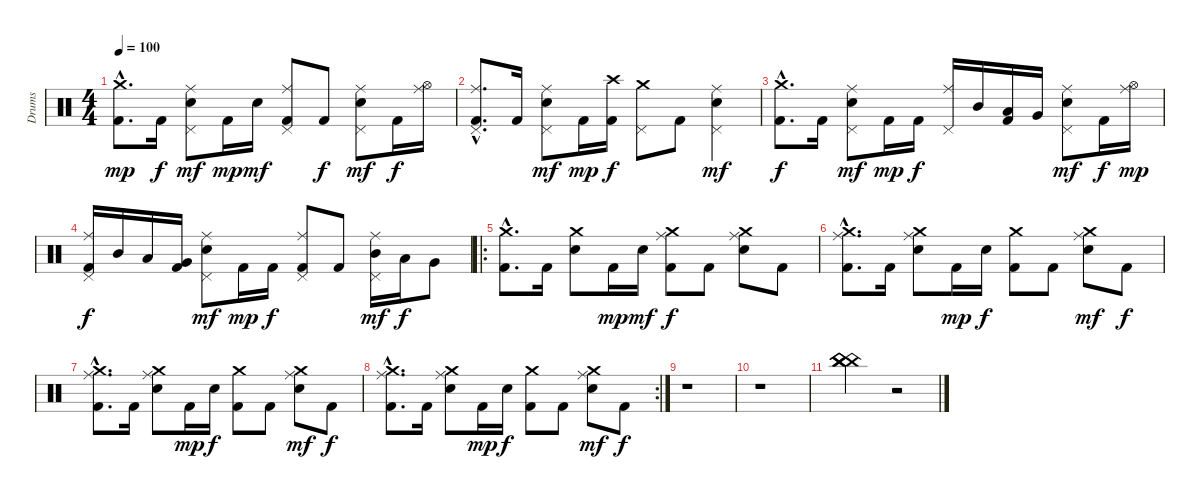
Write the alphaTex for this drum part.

\track ("Drums" "Drums") {instrument percussion}
\staff {score}
\articulation defaults
\ts (4 4)
\tempo 100
\clef neutral
\ks c
("Crash medium (hit)"{hac} "Kick (hit) 2"{hac}).8{d dy mp} "Kick (hit) 2".16{dy f} ("Ride (middle)" "Pedal Hi-Hat (hit)" "Electric Snare (hit)").8{dy mf} "Kick (hit) 2".16{dy mp} "Electric Snare (hit)".16{dy mf} ("Ride (middle)" "Pedal Hi-Hat (hit)" "Kick (hit) 2").8 "Kick (hit) 2".8{dy f} ("Ride (middle)" "Pedal Hi-Hat (hit)" "Electric Snare (hit)").8{dy mf} "Kick (hit) 2".16{dy f} ("Ride (middle)" "Hi-Hat (open)").16 |
("Ride (middle)"{hac} "Pedal Hi-Hat (hit)"{hac} "Kick (hit) 2"{hac}).8{d} "Kick (hit) 2".16 ("Ride (middle)" "Pedal Hi-Hat (hit)" "Electric Snare (hit)").8{dy mf} "Kick (hit) 2".16{dy mp} ("Crash high (hit)" "Kick (hit) 2").16{dy f} ("Crash medium (hit)" "Pedal Hi-Hat (hit)").8 "Kick (hit) 2".8 ("Ride (middle)" "Pedal Hi-Hat (hit)" "Electric Snare (hit)").4{dy mf} |
("Crash medium (hit)"{hac} "Kick (hit) 2"{hac}).8{d dy f} "Kick (hit) 2".16 ("Ride (middle)" "Pedal Hi-Hat (hit)" "Electric Snare (hit)").8{dy mf} "Kick (hit) 2".16{dy mp} "Kick (hit) 2".16{dy f} ("Ride (middle)" "Pedal Hi-Hat (hit)").16 "Mid Tom (hit)".16 ("Low Tom (hit)" "Kick (hit) 2").16 "Very Low Tom (hit)".16 ("Ride (middle)" "Pedal Hi-Hat (hit)" "Electric Snare (hit)").8{dy mf} "Kick (hit) 2".16{dy f} ("Ride (middle)" "Hi-Hat (open)").16{dy mp} |
("Ride (middle)" "Pedal Hi-Hat (hit)" "Kick (hit) 2").16{dy f} "Mid Tom (hit)".16 "Low Tom (hit)".16 ("Very Low Tom (hit)" "Kick (hit) 2").16 ("Ride (middle)" "Pedal Hi-Hat (hit)" "Electric Snare (hit)").8{dy mf} "Kick (hit) 2".16{dy mp} "Kick (hit) 2".16{dy f} ("Ride (middle)" "Pedal Hi-Hat (hit)" "Kick (hit) 2").8 "Kick (hit) 2".8 ("Ride (middle)" "Pedal Hi-Hat (hit)" "Mid Tom (hit)").16{dy mf} "Low Tom (hit)".16{dy f} "Very Low Tom (hit)".8 |
\ro
("Crash medium (hit)"{hac} "Kick (hit) 2"{hac}).8{d} "Kick (hit) 2".16 ("Crash medium (hit)" "Electric Snare (hit)").8 "Kick (hit) 2".16{dy mp} "Electric Snare (hit)".16{dy mf} ("Ride (middle)" "Crash medium (hit)" "Kick (hit) 2").8{dy f} "Kick (hit) 2".8 ("Ride (middle)" "Crash medium (hit)" "Electric Snare (hit)").8 "Kick (hit) 2".8 |
("Ride (middle)"{hac} "Crash medium (hit)"{hac} "Kick (hit) 2"{hac}).8{d} "Kick (hit) 2".16 ("Ride (middle)" "Crash medium (hit)" "Electric Snare (hit)").8 "Kick (hit) 2".16{dy mp} "Electric Snare (hit)".16{dy f} ("Crash medium (hit)" "Kick (hit) 2").8 "Kick (hit) 2".8 ("Ride (middle)" "Crash medium (hit)" "Electric Snare (hit)").8{dy mf} "Kick (hit) 2".8{dy f} |
("Ride (middle)"{hac} "Crash medium (hit)"{hac} "Kick (hit) 2"{hac}).8{d} "Kick (hit) 2".16 ("Ride (middle)" "Crash medium (hit)" "Electric Snare (hit)").8 "Kick (hit) 2".16{dy mp} "Electric Snare (hit)".16{dy f} ("Crash medium (hit)" "Kick (hit) 2").8 "Kick (hit) 2".8 ("Ride (middle)" "Crash medium (hit)" "Electric Snare (hit)").8{dy mf} "Kick (hit) 2".8{dy f} |
\rc 2
("Ride (middle)"{hac} "Crash medium (hit)"{hac} "Kick (hit) 2"{hac}).8{d} "Kick (hit) 2".16 ("Ride (middle)" "Crash medium (hit)" "Electric Snare (hit)").8 "Kick (hit) 2".16{dy mp} "Electric Snare (hit)".16{dy f} ("Crash medium (hit)" "Kick (hit) 2").8 "Kick (hit) 2".8 ("Ride (middle)" "Crash medium (hit)" "Electric Snare (hit)").8{dy mf} "Kick (hit) 2".8{dy f} |
r.1 |
r.1 |
("China (hit)" "China (hit)" "China (hit)" "China (hit)").2{bd 60} r.2
